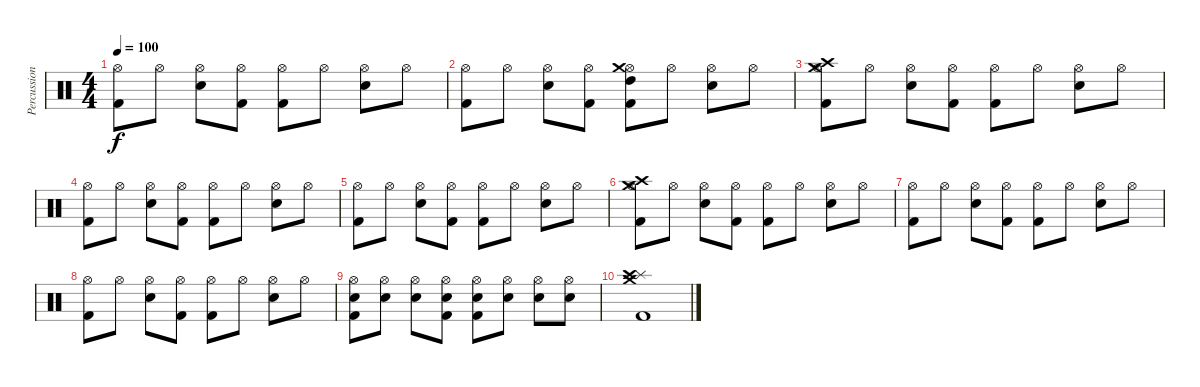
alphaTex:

\track ("Percussion" "Percussion") {instrument percussion}
\staff {score}
\articulation defaults
\ts (4 4)
\tempo 100
\clef neutral
\ks c
("Kick (hit) 2" "Hi-Hat (open)").8{dy f} "Hi-Hat (open)".8 ("Hi-Hat (open)" "Electric Snare (hit)").8 ("Hi-Hat (open)" "Kick (hit) 2").8 ("Hi-Hat (open)" "Kick (hit) 2").8 "Hi-Hat (open)".8 ("Hi-Hat (open)" "Electric Snare (hit)").8 "Hi-Hat (open)".8 |
("Kick (hit) 2" "Hi-Hat (open)").8 "Hi-Hat (open)".8 ("Hi-Hat (open)" "Electric Snare (hit)").8 ("Hi-Hat (open)" "Kick (hit) 2").8 ("Hi-Hat (open)" "Kick (hit) 2" "Crash medium (hit)" "High Tom (hit)").8 "Hi-Hat (open)".8 ("Hi-Hat (open)" "Electric Snare (hit)").8 "Hi-Hat (open)".8 |
("Crash high (hit)" "Crash medium (hit)" "Kick (hit) 2" "Hi-Hat (open)").8 "Hi-Hat (open)".8 ("Hi-Hat (open)" "Electric Snare (hit)").8 ("Hi-Hat (open)" "Kick (hit) 2").8 ("Hi-Hat (open)" "Kick (hit) 2").8 "Hi-Hat (open)".8 ("Hi-Hat (open)" "Electric Snare (hit)").8 "Hi-Hat (open)".8 |
("Kick (hit) 2" "Hi-Hat (open)").8 "Hi-Hat (open)".8 ("Hi-Hat (open)" "Electric Snare (hit)").8 ("Hi-Hat (open)" "Kick (hit) 2").8 ("Hi-Hat (open)" "Kick (hit) 2").8 "Hi-Hat (open)".8 ("Hi-Hat (open)" "Electric Snare (hit)").8 "Hi-Hat (open)".8 |
("Kick (hit) 2" "Hi-Hat (open)").8 "Hi-Hat (open)".8 ("Hi-Hat (open)" "Electric Snare (hit)").8 ("Hi-Hat (open)" "Kick (hit) 2").8 ("Hi-Hat (open)" "Kick (hit) 2").8 "Hi-Hat (open)".8 ("Hi-Hat (open)" "Electric Snare (hit)").8 "Hi-Hat (open)".8 |
("Crash high (hit)" "Crash medium (hit)" "Kick (hit) 2" "Hi-Hat (open)").8 "Hi-Hat (open)".8 ("Hi-Hat (open)" "Electric Snare (hit)").8 ("Hi-Hat (open)" "Kick (hit) 2").8 ("Hi-Hat (open)" "Kick (hit) 2").8 "Hi-Hat (open)".8 ("Hi-Hat (open)" "Electric Snare (hit)").8 "Hi-Hat (open)".8 |
("Kick (hit) 2" "Hi-Hat (open)").8 "Hi-Hat (open)".8 ("Hi-Hat (open)" "Electric Snare (hit)").8 ("Hi-Hat (open)" "Kick (hit) 2").8 ("Hi-Hat (open)" "Kick (hit) 2").8 "Hi-Hat (open)".8 ("Hi-Hat (open)" "Electric Snare (hit)").8 "Hi-Hat (open)".8 |
("Kick (hit) 2" "Hi-Hat (open)").8 "Hi-Hat (open)".8 ("Hi-Hat (open)" "Electric Snare (hit)").8 ("Hi-Hat (open)" "Kick (hit) 2").8 ("Hi-Hat (open)" "Kick (hit) 2").8 "Hi-Hat (open)".8 ("Hi-Hat (open)" "Electric Snare (hit)").8 "Hi-Hat (open)".8 |
("Electric Snare (hit)" "Kick (hit) 2" "Hi-Hat (open)").8 ("Hi-Hat (open)" "Electric Snare (hit)").8 ("Hi-Hat (open)" "Electric Snare (hit)").8 ("Hi-Hat (open)" "Electric Snare (hit)" "Kick (hit) 2").8 ("Hi-Hat (open)" "Electric Snare (hit)" "Kick (hit) 2").8 ("Hi-Hat (open)" "Electric Snare (hit)").8 ("Hi-Hat (open)" "Electric Snare (hit)").8 ("Hi-Hat (open)" "Electric Snare (hit)").8 |
("Splash (hit)" "Crash high (hit)" "Crash medium (hit)" "Kick (hit) 2").1
